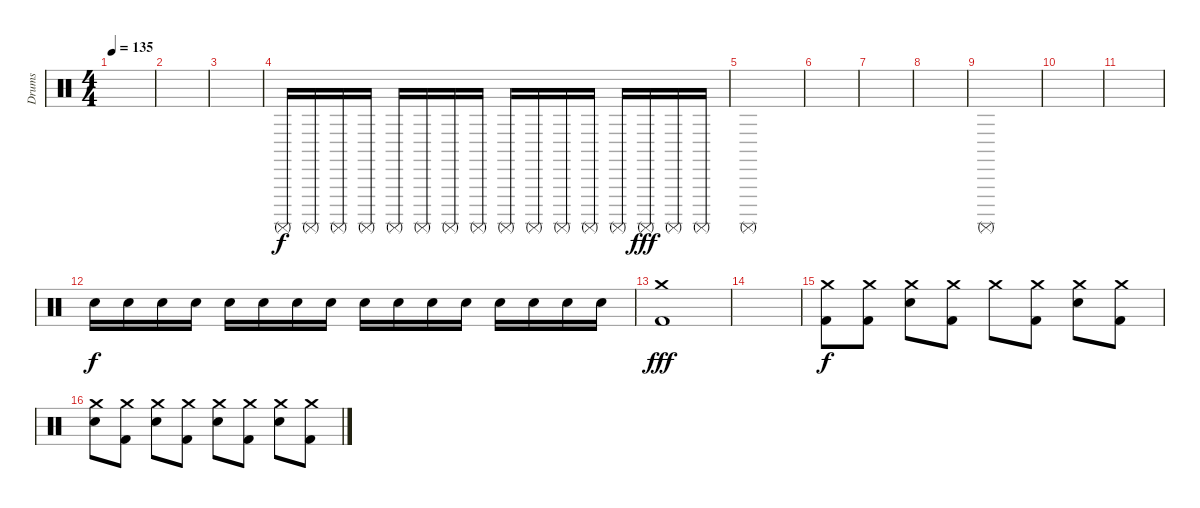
\track ("Drums" "Drums") {instrument percussion}
\staff {score}
\articulation defaults
\ts (4 4)
\tempo 135
\clef neutral
\ks c
|
|
|
"Surdo (mute)".16{volume 16} "Surdo (mute)".16 "Surdo (mute)".16 "Surdo (mute)".16 "Surdo (mute)".16 "Surdo (mute)".16 "Surdo (mute)".16 "Surdo (mute)".16 "Surdo (mute)".16 "Surdo (mute)".16 "Surdo (mute)".16 "Surdo (mute)".16 "Surdo (mute)".16{volume 16} "Surdo (mute)".16{dy fff} "Surdo (mute)".16 "Surdo (mute)".16 |
"Surdo (mute)".1 |
|
|
|
"Surdo (mute)".1 |
|
|
"Electric Snare (hit)".16{dy f} "Electric Snare (hit)".16 "Electric Snare (hit)".16 "Electric Snare (hit)".16 "Electric Snare (hit)".16 "Electric Snare (hit)".16 "Electric Snare (hit)".16 "Electric Snare (hit)".16 "Electric Snare (hit)".16 "Electric Snare (hit)".16 "Electric Snare (hit)".16 "Electric Snare (hit)".16 "Electric Snare (hit)".16 "Electric Snare (hit)".16 "Electric Snare (hit)".16 "Electric Snare (hit)".16 |
("Crash medium (hit)" "Kick (hit) 2").1{dy fff} |
|
("Crash medium (hit)" "Kick (hit) 2").8{dy f} ("Crash medium (hit)" "Kick (hit) 2").8 ("Crash medium (hit)" "Electric Snare (hit)").8 ("Crash medium (hit)" "Kick (hit) 2").8 "Crash medium (hit)".8 ("Crash medium (hit)" "Kick (hit) 2").8 ("Crash medium (hit)" "Electric Snare (hit)").8 ("Crash medium (hit)" "Kick (hit) 2").8 |
("Crash medium (hit)" "Electric Snare (hit)").8 ("Crash medium (hit)" "Kick (hit) 2").8 ("Crash medium (hit)" "Electric Snare (hit)").8 ("Crash medium (hit)" "Kick (hit) 2").8 ("Crash medium (hit)" "Electric Snare (hit)").8 ("Crash medium (hit)" "Kick (hit) 2").8 ("Crash medium (hit)" "Electric Snare (hit)").8 ("Crash medium (hit)" "Kick (hit) 2").8
